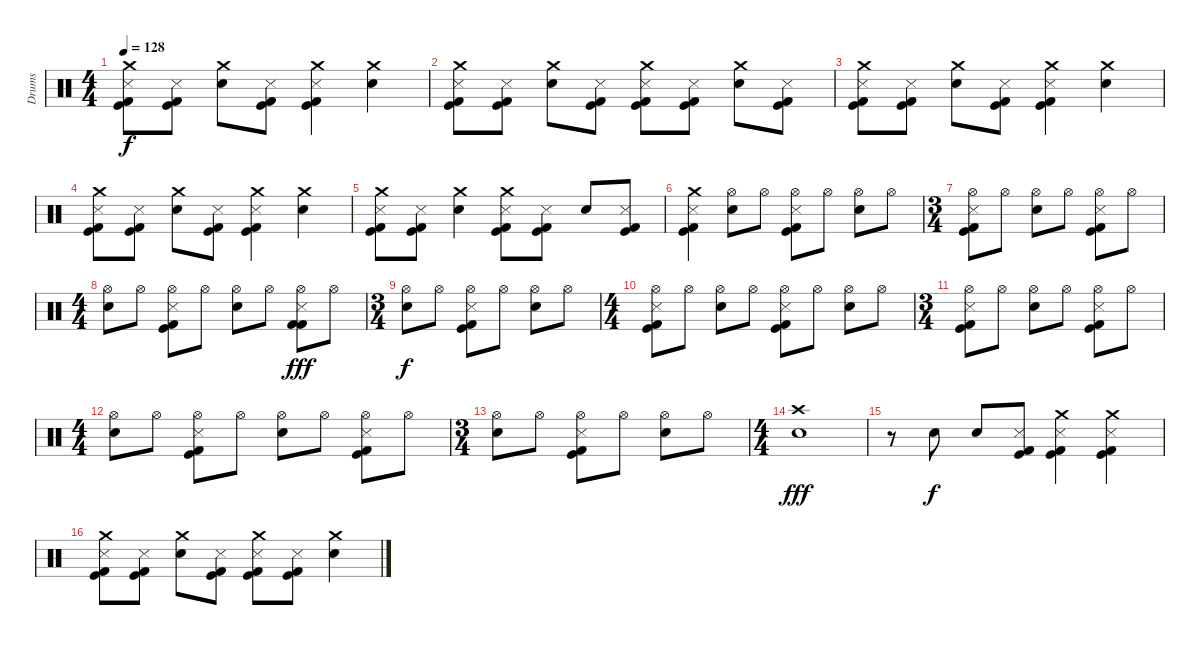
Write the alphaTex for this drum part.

\track ("Drums" "Drums") {instrument percussion}
\staff {score}
\articulation defaults
\ts (4 4)
\tempo 128
\clef neutral
\ks c
("Crash medium (hit)" "Metronome (hit)" "Kick (hit)" "Kick (hit) 2").8{dy f} ("Metronome (hit)" "Kick (hit)" "Kick (hit) 2").8 ("Snare (hit) 2" "Crash medium (hit)").8 ("Metronome (hit)" "Kick (hit)" "Kick (hit) 2").8 ("Crash medium (hit)" "Metronome (hit)" "Kick (hit)" "Kick (hit) 2").4 ("Snare (hit) 2" "Crash medium (hit)").4 |
("Crash medium (hit)" "Metronome (hit)" "Kick (hit)" "Kick (hit) 2").8 ("Metronome (hit)" "Kick (hit)" "Kick (hit) 2").8 ("Snare (hit) 2" "Crash medium (hit)").8 ("Metronome (hit)" "Kick (hit)" "Kick (hit) 2").8 ("Crash medium (hit)" "Metronome (hit)" "Kick (hit)" "Kick (hit) 2").8 ("Metronome (hit)" "Kick (hit)" "Kick (hit) 2").8 ("Snare (hit) 2" "Crash medium (hit)").8 ("Metronome (hit)" "Kick (hit)" "Kick (hit) 2").8 |
("Crash medium (hit)" "Metronome (hit)" "Kick (hit)" "Kick (hit) 2").8 ("Metronome (hit)" "Kick (hit)" "Kick (hit) 2").8 ("Snare (hit) 2" "Crash medium (hit)").8 ("Metronome (hit)" "Kick (hit)" "Kick (hit) 2").8 ("Crash medium (hit)" "Metronome (hit)" "Kick (hit)" "Kick (hit) 2").4 ("Snare (hit) 2" "Crash medium (hit)").4 |
("Crash medium (hit)" "Metronome (hit)" "Kick (hit)" "Kick (hit) 2").8 ("Metronome (hit)" "Kick (hit)" "Kick (hit) 2").8 ("Snare (hit) 2" "Crash medium (hit)").8 ("Metronome (hit)" "Kick (hit)" "Kick (hit) 2").8 ("Crash medium (hit)" "Metronome (hit)" "Kick (hit)" "Kick (hit) 2").4 ("Snare (hit) 2" "Crash medium (hit)").4 |
("Crash medium (hit)" "Metronome (hit)" "Kick (hit)" "Kick (hit) 2").8 ("Metronome (hit)" "Kick (hit)" "Kick (hit) 2").8 ("Snare (hit) 2" "Crash medium (hit)").4 ("Crash medium (hit)" "Metronome (hit)" "Kick (hit)" "Kick (hit) 2").8 ("Metronome (hit)" "Kick (hit)" "Kick (hit) 2").8 "Snare (hit) 2".8 ("Metronome (hit)" "Kick (hit)" "Kick (hit) 2").8 |
("Crash medium (hit)" "Metronome (hit)" "Kick (hit)" "Kick (hit) 2").4 ("Snare (hit) 2" "Hi-Hat (open)").8 "Hi-Hat (open)".8 ("Hi-Hat (open)" "Metronome (hit)" "Kick (hit)" "Kick (hit) 2").8 "Hi-Hat (open)".8 ("Snare (hit) 2" "Hi-Hat (open)").8 "Hi-Hat (open)".8 |
\ts (3 4)
("Hi-Hat (open)" "Metronome (hit)" "Kick (hit)" "Kick (hit) 2").8 "Hi-Hat (open)".8 ("Snare (hit) 2" "Hi-Hat (open)").8 "Hi-Hat (open)".8 ("Hi-Hat (open)" "Metronome (hit)" "Kick (hit)" "Kick (hit) 2").8 "Hi-Hat (open)".8 |
\ts (4 4)
("Snare (hit) 2" "Hi-Hat (open)").8 "Hi-Hat (open)".8 ("Hi-Hat (open)" "Metronome (hit)" "Kick (hit)" "Kick (hit) 2").8 "Hi-Hat (open)".8 ("Snare (hit) 2" "Hi-Hat (open)").8 "Hi-Hat (open)".8 ("Hi-Hat (open)" "Metronome (hit)" "Kick (hit) 2" "Kick (hit) 2").8{dy fff} "Hi-Hat (open)".8 |
\ts (3 4)
("Snare (hit) 2" "Hi-Hat (open)").8{dy f} "Hi-Hat (open)".8 ("Hi-Hat (open)" "Metronome (hit)" "Kick (hit)" "Kick (hit) 2").8 "Hi-Hat (open)".8 ("Snare (hit) 2" "Hi-Hat (open)").8 "Hi-Hat (open)".8 |
\ts (4 4)
("Hi-Hat (open)" "Metronome (hit)" "Kick (hit)" "Kick (hit) 2").8 "Hi-Hat (open)".8 ("Snare (hit) 2" "Hi-Hat (open)").8 "Hi-Hat (open)".8 ("Hi-Hat (open)" "Metronome (hit)" "Kick (hit)" "Kick (hit) 2").8 "Hi-Hat (open)".8 ("Snare (hit) 2" "Hi-Hat (open)").8 "Hi-Hat (open)".8 |
\ts (3 4)
("Hi-Hat (open)" "Metronome (hit)" "Kick (hit)" "Kick (hit) 2").8 "Hi-Hat (open)".8 ("Snare (hit) 2" "Hi-Hat (open)").8 "Hi-Hat (open)".8 ("Hi-Hat (open)" "Metronome (hit)" "Kick (hit)" "Kick (hit) 2").8 "Hi-Hat (open)".8 |
\ts (4 4)
("Snare (hit) 2" "Hi-Hat (open)").8 "Hi-Hat (open)".8 ("Hi-Hat (open)" "Metronome (hit)" "Kick (hit)" "Kick (hit) 2").8 "Hi-Hat (open)".8 ("Snare (hit) 2" "Hi-Hat (open)").8 "Hi-Hat (open)".8 ("Hi-Hat (open)" "Metronome (hit)" "Kick (hit)" "Kick (hit) 2").8 "Hi-Hat (open)".8 |
\ts (3 4)
("Snare (hit) 2" "Hi-Hat (open)").8 "Hi-Hat (open)".8 ("Hi-Hat (open)" "Metronome (hit)" "Kick (hit)" "Kick (hit) 2").8 "Hi-Hat (open)".8 ("Snare (hit) 2" "Hi-Hat (open)").8 "Hi-Hat (open)".8 |
\ts (4 4)
("Crash high (hit)" "Snare (hit) 2").1{dy fff} |
r.8 "Snare (hit) 2".8{dy f} "Snare (hit) 2".8 ("Metronome (hit)" "Kick (hit)" "Kick (hit) 2").8 ("Crash medium (hit)" "Metronome (hit)" "Kick (hit)" "Kick (hit) 2").4 ("Crash medium (hit)" "Metronome (hit)" "Kick (hit)" "Kick (hit) 2").4 |
("Crash medium (hit)" "Metronome (hit)" "Kick (hit)" "Kick (hit) 2").8 ("Metronome (hit)" "Kick (hit)" "Kick (hit) 2").8 ("Snare (hit) 2" "Crash medium (hit)").8 ("Metronome (hit)" "Kick (hit)" "Kick (hit) 2").8 ("Crash medium (hit)" "Metronome (hit)" "Kick (hit)" "Kick (hit) 2").8 ("Metronome (hit)" "Kick (hit)" "Kick (hit) 2").8 ("Snare (hit) 2" "Crash medium (hit)").4
